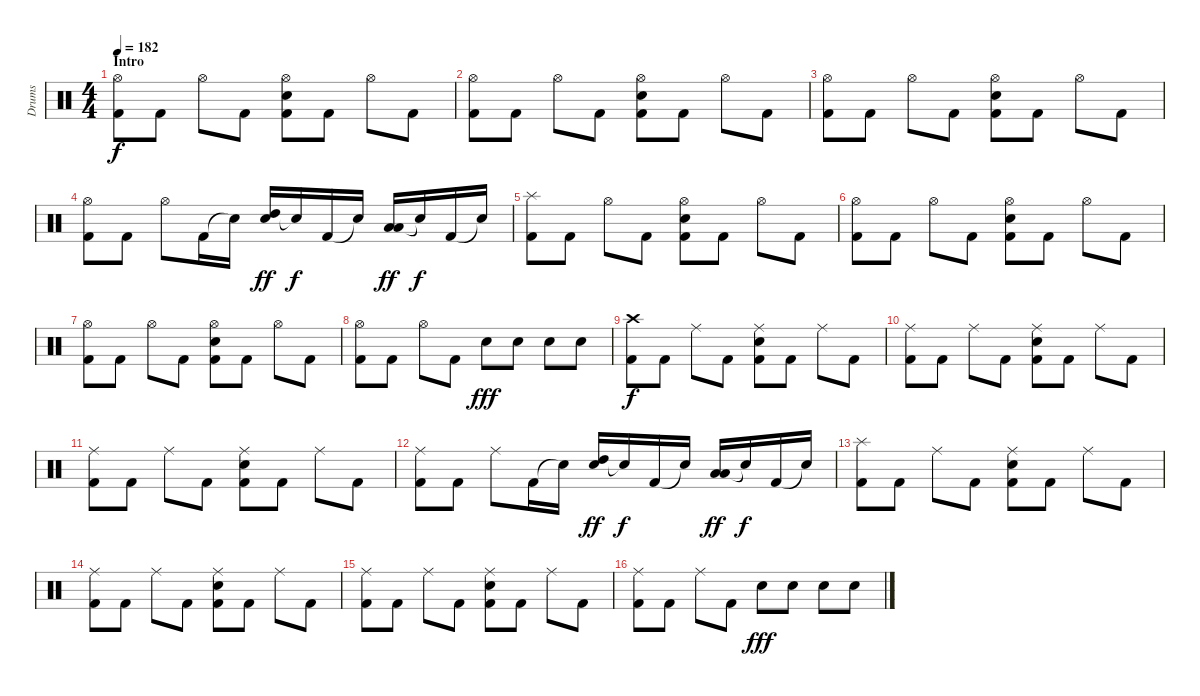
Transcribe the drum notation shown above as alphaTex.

\track ("Drums" "Drums") {instrument percussion}
\staff {score}
\articulation defaults
\ts (4 4)
\section ("" "Intro")
\tempo 182
\clef neutral
\ks c
("Hi-Hat (open)" "Kick (hit) 2").8{dy f} "Kick (hit) 2".8 "Hi-Hat (open)".8 "Kick (hit) 2".8 ("Hi-Hat (open)" "Snare (hit) 2" "Kick (hit) 2").8 "Kick (hit) 2".8 "Hi-Hat (open)".8 "Kick (hit) 2".8 |
("Hi-Hat (open)" "Kick (hit) 2").8 "Kick (hit) 2".8 "Hi-Hat (open)".8 "Kick (hit) 2".8 ("Hi-Hat (open)" "Snare (hit) 2" "Kick (hit) 2").8 "Kick (hit) 2".8 "Hi-Hat (open)".8 "Kick (hit) 2".8 |
("Hi-Hat (open)" "Kick (hit) 2").8 "Kick (hit) 2".8 "Hi-Hat (open)".8 "Kick (hit) 2".8 ("Hi-Hat (open)" "Snare (hit) 2" "Kick (hit) 2").8 "Kick (hit) 2".8 "Hi-Hat (open)".8 "Kick (hit) 2".8 |
("Hi-Hat (open)" "Kick (hit) 2").8 "Kick (hit) 2".8 "Hi-Hat (open)".8 "Kick (hit) 2".16 "Snare (hit)"{t}.16 ("High Tom (hit)" "Snare (hit) 2").16{dy ff} "Snare (hit)"{t}.16{dy f} "Kick (hit) 2".16 "Snare (hit)"{t}.16 ("Low Tom (hit)" "Low Floor Tom (hit)").16{dy ff} "Snare (hit)"{t}.16{dy f} "Kick (hit) 2".16 "Snare (hit)"{t}.16 |
("Splash (hit)" "Kick (hit) 2").8 "Kick (hit) 2".8 "Hi-Hat (open)".8 "Kick (hit) 2".8 ("Hi-Hat (open)" "Snare (hit) 2" "Kick (hit) 2").8 "Kick (hit) 2".8 "Hi-Hat (open)".8 "Kick (hit) 2".8 |
("Hi-Hat (open)" "Kick (hit) 2").8 "Kick (hit) 2".8 "Hi-Hat (open)".8 "Kick (hit) 2".8 ("Hi-Hat (open)" "Snare (hit) 2" "Kick (hit) 2").8 "Kick (hit) 2".8 "Hi-Hat (open)".8 "Kick (hit) 2".8 |
("Hi-Hat (open)" "Kick (hit) 2").8 "Kick (hit) 2".8 "Hi-Hat (open)".8 "Kick (hit) 2".8 ("Hi-Hat (open)" "Snare (hit) 2" "Kick (hit) 2").8 "Kick (hit) 2".8 "Hi-Hat (open)".8 "Kick (hit) 2".8 |
("Hi-Hat (open)" "Kick (hit) 2").8 "Kick (hit) 2".8 "Hi-Hat (open)".8 "Kick (hit) 2".8 "Snare (hit) 2".8{dy fff} "Snare (hit) 2".8 "Snare (hit) 2".8 "Snare (hit) 2".8 |
("Crash high (hit)" "Kick (hit) 2").8{dy f} "Kick (hit) 2".8 "Ride (middle)".8 "Kick (hit) 2".8 ("Ride (middle)" "Snare (hit) 2" "Kick (hit) 2").8 "Kick (hit) 2".8 "Ride (middle)".8 "Kick (hit) 2".8 |
("Ride (middle)" "Kick (hit) 2").8 "Kick (hit) 2".8 "Ride (middle)".8 "Kick (hit) 2".8 ("Ride (middle)" "Snare (hit) 2" "Kick (hit) 2").8 "Kick (hit) 2".8 "Ride (middle)".8 "Kick (hit) 2".8 |
("Ride (middle)" "Kick (hit) 2").8 "Kick (hit) 2".8 "Ride (middle)".8 "Kick (hit) 2".8 ("Ride (middle)" "Snare (hit) 2" "Kick (hit) 2").8 "Kick (hit) 2".8 "Ride (middle)".8 "Kick (hit) 2".8 |
("Ride (middle)" "Kick (hit) 2").8 "Kick (hit) 2".8 "Ride (middle)".8 "Kick (hit) 2".16 "Snare (hit)"{t}.16 ("High Tom (hit)" "Snare (hit) 2").16{dy ff} "Snare (hit)"{t}.16{dy f} "Kick (hit) 2".16 "Snare (hit)"{t}.16 ("Low Tom (hit)" "Low Floor Tom (hit)").16{dy ff} "Snare (hit)"{t}.16{dy f} "Kick (hit) 2".16 "Snare (hit)"{t}.16 |
("Splash (hit)" "Kick (hit) 2").8 "Kick (hit) 2".8 "Ride (middle)".8 "Kick (hit) 2".8 ("Ride (middle)" "Snare (hit) 2" "Kick (hit) 2").8 "Kick (hit) 2".8 "Ride (middle)".8 "Kick (hit) 2".8 |
("Ride (middle)" "Kick (hit) 2").8 "Kick (hit) 2".8 "Ride (middle)".8 "Kick (hit) 2".8 ("Ride (middle)" "Snare (hit) 2" "Kick (hit) 2").8 "Kick (hit) 2".8 "Ride (middle)".8 "Kick (hit) 2".8 |
("Ride (middle)" "Kick (hit) 2").8 "Kick (hit) 2".8 "Ride (middle)".8 "Kick (hit) 2".8 ("Ride (middle)" "Snare (hit) 2" "Kick (hit) 2").8 "Kick (hit) 2".8 "Ride (middle)".8 "Kick (hit) 2".8 |
("Ride (middle)" "Kick (hit) 2").8 "Kick (hit) 2".8 "Ride (middle)".8 "Kick (hit) 2".8 "Snare (hit) 2".8{dy fff} "Snare (hit) 2".8 "Snare (hit) 2".8 "Snare (hit) 2".8
